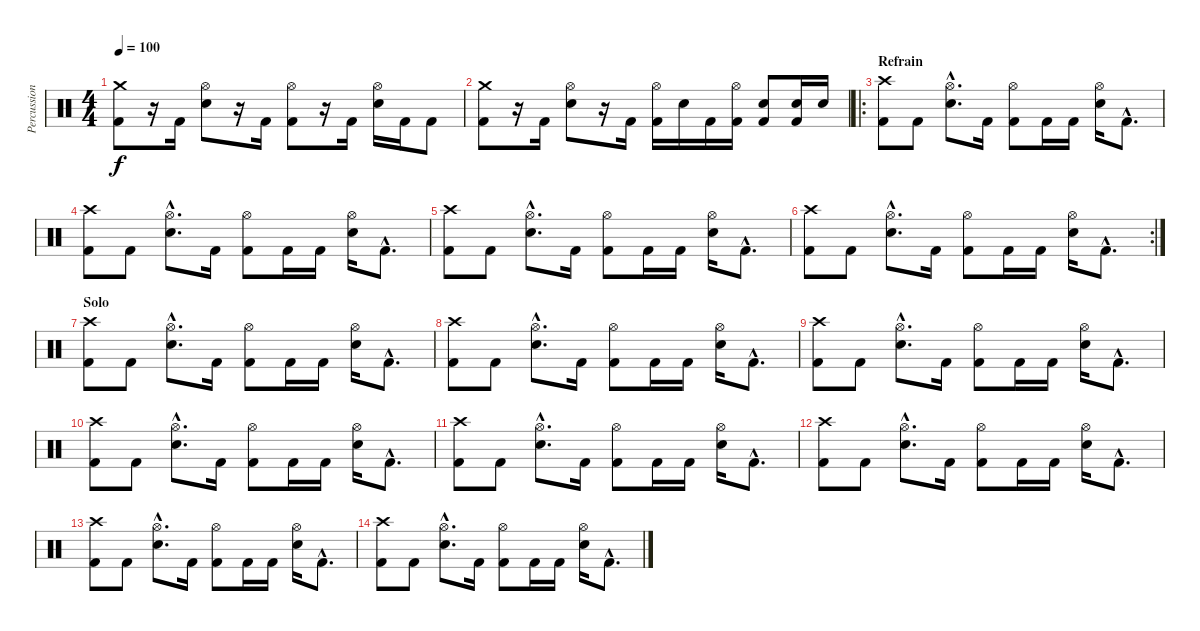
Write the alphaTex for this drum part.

\track ("Percussions" "Percussion") {instrument percussion}
\staff {score}
\articulation defaults
\ts (4 4)
\tempo 100
\clef neutral
\ks c
("Crash medium (hit)" "Kick (hit) 2").8{dy f} r.16 "Kick (hit) 2".16 ("Hi-Hat (open)" "Electric Snare (hit)").8 r.16 "Kick (hit) 2".16 ("Hi-Hat (open)" "Kick (hit) 2").8 r.16 "Kick (hit) 2".16 ("Hi-Hat (open)" "Electric Snare (hit)").16 "Kick (hit) 2".16 "Kick (hit) 2".8 |
("Crash medium (hit)" "Kick (hit) 2").8 r.16 "Kick (hit) 2".16 ("Hi-Hat (open)" "Electric Snare (hit)").8 r.16 "Kick (hit) 2".16 ("Hi-Hat (open)" "Kick (hit) 2").16 "Electric Snare (hit)".16 "Kick (hit) 2".16 ("Hi-Hat (open)" "Kick (hit) 2").16 ("Electric Snare (hit)" "Kick (hit) 2").8 ("Electric Snare (hit)" "Kick (hit) 2").16 "Electric Snare (hit)".16 |
\ro
\section ("" "Refrain")
("Crash high (hit)" "Kick (hit) 2").8 "Kick (hit) 2".8 ("Hi-Hat (open)"{hac} "Electric Snare (hit)"{hac}).8{d} "Kick (hit) 2".16 ("Hi-Hat (open)" "Kick (hit) 2").8 "Kick (hit) 2".16 "Kick (hit) 2".16 ("Hi-Hat (open)" "Electric Snare (hit)").16 "Kick (hit) 2"{hac}.8{d} |
("Crash high (hit)" "Kick (hit) 2").8 "Kick (hit) 2".8 ("Hi-Hat (open)"{hac} "Electric Snare (hit)"{hac}).8{d} "Kick (hit) 2".16 ("Hi-Hat (open)" "Kick (hit) 2").8 "Kick (hit) 2".16 "Kick (hit) 2".16 ("Hi-Hat (open)" "Electric Snare (hit)").16 "Kick (hit) 2"{hac}.8{d} |
("Crash high (hit)" "Kick (hit) 2").8 "Kick (hit) 2".8 ("Hi-Hat (open)"{hac} "Electric Snare (hit)"{hac}).8{d} "Kick (hit) 2".16 ("Hi-Hat (open)" "Kick (hit) 2").8 "Kick (hit) 2".16 "Kick (hit) 2".16 ("Hi-Hat (open)" "Electric Snare (hit)").16 "Kick (hit) 2"{hac}.8{d} |
\rc 2
("Crash high (hit)" "Kick (hit) 2").8 "Kick (hit) 2".8 ("Hi-Hat (open)"{hac} "Electric Snare (hit)"{hac}).8{d} "Kick (hit) 2".16 ("Hi-Hat (open)" "Kick (hit) 2").8 "Kick (hit) 2".16 "Kick (hit) 2".16 ("Hi-Hat (open)" "Electric Snare (hit)").16 "Kick (hit) 2"{hac}.8{d} |
\section ("" "Solo")
("Crash high (hit)" "Kick (hit) 2").8 "Kick (hit) 2".8 ("Hi-Hat (open)"{hac} "Electric Snare (hit)"{hac}).8{d} "Kick (hit) 2".16 ("Hi-Hat (open)" "Kick (hit) 2").8 "Kick (hit) 2".16 "Kick (hit) 2".16 ("Hi-Hat (open)" "Electric Snare (hit)").16 "Kick (hit) 2"{hac}.8{d} |
("Crash high (hit)" "Kick (hit) 2").8 "Kick (hit) 2".8 ("Hi-Hat (open)"{hac} "Electric Snare (hit)"{hac}).8{d} "Kick (hit) 2".16 ("Hi-Hat (open)" "Kick (hit) 2").8 "Kick (hit) 2".16 "Kick (hit) 2".16 ("Hi-Hat (open)" "Electric Snare (hit)").16 "Kick (hit) 2"{hac}.8{d} |
("Crash high (hit)" "Kick (hit) 2").8 "Kick (hit) 2".8 ("Hi-Hat (open)"{hac} "Electric Snare (hit)"{hac}).8{d} "Kick (hit) 2".16 ("Hi-Hat (open)" "Kick (hit) 2").8 "Kick (hit) 2".16 "Kick (hit) 2".16 ("Hi-Hat (open)" "Electric Snare (hit)").16 "Kick (hit) 2"{hac}.8{d} |
("Crash high (hit)" "Kick (hit) 2").8 "Kick (hit) 2".8 ("Hi-Hat (open)"{hac} "Electric Snare (hit)"{hac}).8{d} "Kick (hit) 2".16 ("Hi-Hat (open)" "Kick (hit) 2").8 "Kick (hit) 2".16 "Kick (hit) 2".16 ("Hi-Hat (open)" "Electric Snare (hit)").16 "Kick (hit) 2"{hac}.8{d} |
("Crash high (hit)" "Kick (hit) 2").8 "Kick (hit) 2".8 ("Hi-Hat (open)"{hac} "Electric Snare (hit)"{hac}).8{d} "Kick (hit) 2".16 ("Hi-Hat (open)" "Kick (hit) 2").8 "Kick (hit) 2".16 "Kick (hit) 2".16 ("Hi-Hat (open)" "Electric Snare (hit)").16 "Kick (hit) 2"{hac}.8{d} |
("Crash high (hit)" "Kick (hit) 2").8 "Kick (hit) 2".8 ("Hi-Hat (open)"{hac} "Electric Snare (hit)"{hac}).8{d} "Kick (hit) 2".16 ("Hi-Hat (open)" "Kick (hit) 2").8 "Kick (hit) 2".16 "Kick (hit) 2".16 ("Hi-Hat (open)" "Electric Snare (hit)").16 "Kick (hit) 2"{hac}.8{d} |
("Crash high (hit)" "Kick (hit) 2").8 "Kick (hit) 2".8 ("Hi-Hat (open)"{hac} "Electric Snare (hit)"{hac}).8{d} "Kick (hit) 2".16 ("Hi-Hat (open)" "Kick (hit) 2").8 "Kick (hit) 2".16 "Kick (hit) 2".16 ("Hi-Hat (open)" "Electric Snare (hit)").16 "Kick (hit) 2"{hac}.8{d} |
("Crash high (hit)" "Kick (hit) 2").8 "Kick (hit) 2".8 ("Hi-Hat (open)"{hac} "Electric Snare (hit)"{hac}).8{d} "Kick (hit) 2".16 ("Hi-Hat (open)" "Kick (hit) 2").8 "Kick (hit) 2".16 "Kick (hit) 2".16 ("Hi-Hat (open)" "Electric Snare (hit)").16 "Kick (hit) 2"{hac}.8{d}
